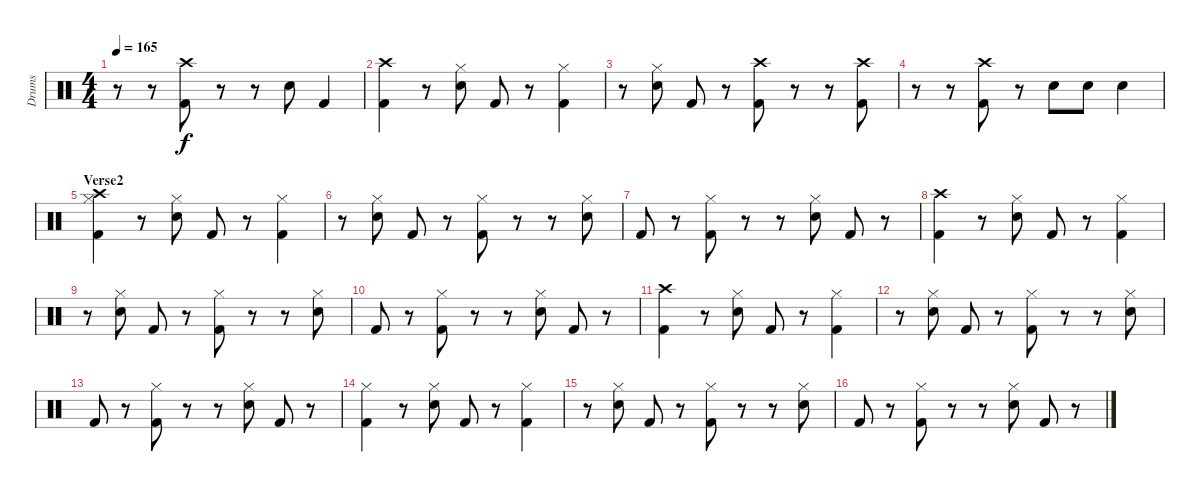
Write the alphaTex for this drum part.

\track ("Drums" "Drums") {instrument percussion}
\staff {score}
\articulation defaults
\ts (4 4)
\tempo 165
\clef neutral
\ks c
r.8{dy f} r.8 ("Crash high (hit)" "Kick (hit) 2").8 r.8 r.8 "Electric Snare (hit)".8 "Kick (hit) 2".4 |
("Crash high (hit)" "Kick (hit) 2").4 r.8 ("Electric Snare (hit)" "Hi-Hat (closed)").8 "Kick (hit) 2".8 r.8 ("Kick (hit) 2" "Hi-Hat (closed)").4 |
r.8 ("Electric Snare (hit)" "Hi-Hat (closed)").8 "Kick (hit) 2".8 r.8 ("Crash high (hit)" "Kick (hit) 2").8 r.8 r.8 ("Crash high (hit)" "Kick (hit) 2").8 |
r.8 r.8 ("Crash high (hit)" "Kick (hit) 2").8 r.8 "Electric Snare (hit)".8 "Electric Snare (hit)".8 "Electric Snare (hit)".4 |
\section ("" "Verse2")
("Kick (hit) 2" "Hi-Hat (closed)" "Crash high (hit)").4 r.8 ("Electric Snare (hit)" "Hi-Hat (closed)").8 "Kick (hit) 2".8 r.8 ("Kick (hit) 2" "Hi-Hat (closed)").4 |
r.8 ("Electric Snare (hit)" "Hi-Hat (closed)").8 "Kick (hit) 2".8 r.8 ("Kick (hit) 2" "Hi-Hat (closed)").8 r.8 r.8 ("Hi-Hat (closed)" "Electric Snare (hit)").8 |
"Kick (hit) 2".8 r.8 ("Hi-Hat (closed)" "Kick (hit) 2").8 r.8 r.8 ("Hi-Hat (closed)" "Electric Snare (hit)").8 "Kick (hit) 2".8 r.8 |
("Kick (hit) 2" "Crash high (hit)").4 r.8 ("Electric Snare (hit)" "Hi-Hat (closed)").8 "Kick (hit) 2".8 r.8 ("Kick (hit) 2" "Hi-Hat (closed)").4 |
r.8 ("Electric Snare (hit)" "Hi-Hat (closed)").8 "Kick (hit) 2".8 r.8 ("Kick (hit) 2" "Hi-Hat (closed)").8 r.8 r.8 ("Hi-Hat (closed)" "Electric Snare (hit)").8 |
"Kick (hit) 2".8 r.8 ("Hi-Hat (closed)" "Kick (hit) 2").8 r.8 r.8 ("Hi-Hat (closed)" "Electric Snare (hit)").8 "Kick (hit) 2".8 r.8 |
("Kick (hit) 2" "Crash high (hit)").4 r.8 ("Electric Snare (hit)" "Hi-Hat (closed)").8 "Kick (hit) 2".8 r.8 ("Kick (hit) 2" "Hi-Hat (closed)").4 |
r.8 ("Electric Snare (hit)" "Hi-Hat (closed)").8 "Kick (hit) 2".8 r.8 ("Kick (hit) 2" "Hi-Hat (closed)").8 r.8 r.8 ("Hi-Hat (closed)" "Electric Snare (hit)").8 |
"Kick (hit) 2".8 r.8 ("Hi-Hat (closed)" "Kick (hit) 2").8 r.8 r.8 ("Hi-Hat (closed)" "Electric Snare (hit)").8 "Kick (hit) 2".8 r.8 |
("Kick (hit) 2" "Hi-Hat (closed)").4 r.8 ("Electric Snare (hit)" "Hi-Hat (closed)").8 "Kick (hit) 2".8 r.8 ("Kick (hit) 2" "Hi-Hat (closed)").4 |
r.8 ("Electric Snare (hit)" "Hi-Hat (closed)").8 "Kick (hit) 2".8 r.8 ("Kick (hit) 2" "Hi-Hat (closed)").8 r.8 r.8 ("Hi-Hat (closed)" "Electric Snare (hit)").8 |
"Kick (hit) 2".8 r.8 ("Hi-Hat (closed)" "Kick (hit) 2").8 r.8 r.8 ("Hi-Hat (closed)" "Electric Snare (hit)").8 "Kick (hit) 2".8 r.8
